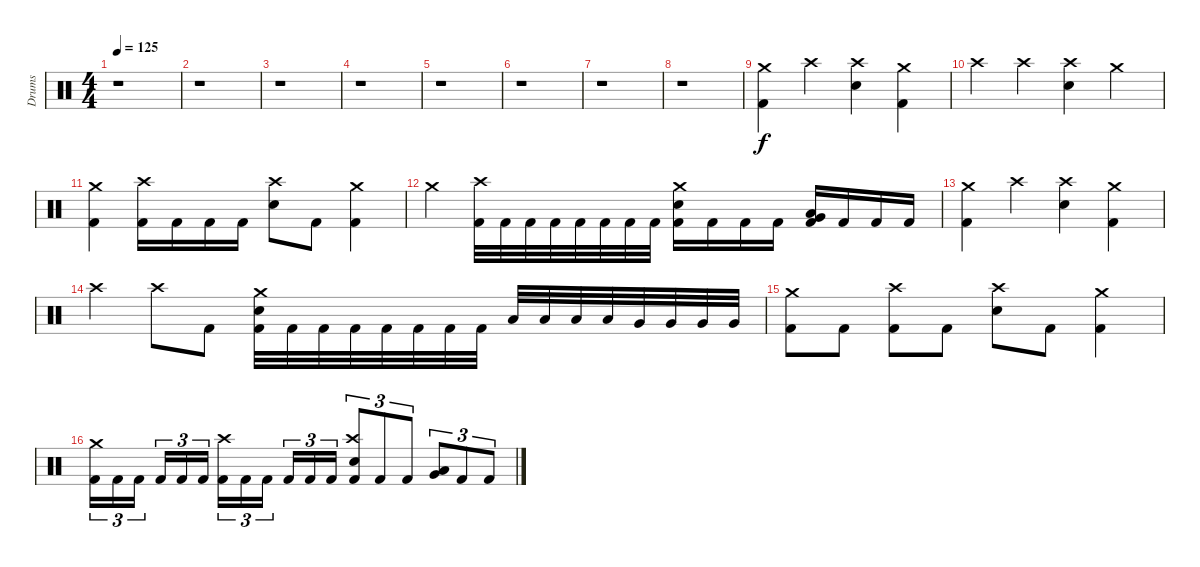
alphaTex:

\track ("Drums" "Drums") {instrument percussion}
\staff {score}
\articulation defaults
\ts (4 4)
\tempo 125
\clef neutral
\ks c
r.1{dy f} |
r.1 |
r.1 |
r.1 |
r.1 |
r.1 |
r.1 |
r.1 |
("Crash medium (hit)" "Kick (hit) 2").4 "Crash high (hit)".4 ("Crash high (hit)" "Snare (hit) 2").4 ("Crash medium (hit)" "Kick (hit) 2").4 |
"Crash high (hit)".4 "Crash high (hit)".4 ("Crash high (hit)" "Snare (hit) 2").4 "Crash medium (hit)".4 |
("Crash medium (hit)" "Kick (hit) 2").4 ("Crash high (hit)" "Kick (hit) 2").16 "Kick (hit) 2".16 "Kick (hit) 2".16 "Kick (hit) 2".16 ("Crash high (hit)" "Snare (hit) 2").8 "Kick (hit) 2".8 ("Crash medium (hit)" "Kick (hit) 2").4 |
"Crash medium (hit)".4 ("Crash high (hit)" "Kick (hit) 2").32 "Kick (hit) 2".32 "Kick (hit) 2".32 "Kick (hit) 2".32 "Kick (hit) 2".32 "Kick (hit) 2".32 "Kick (hit) 2".32 "Kick (hit) 2".32 ("Crash medium (hit)" "Snare (hit) 2" "Kick (hit) 2").16 "Kick (hit) 2".16 "Kick (hit) 2".16 "Kick (hit) 2".16 ("Very Low Tom (hit)" "Low Floor Tom (hit)" "Kick (hit) 2").16 "Kick (hit) 2".16 "Kick (hit) 2".16 "Kick (hit) 2".16 |
("Crash medium (hit)" "Kick (hit) 2").4 "Crash high (hit)".4 ("Crash high (hit)" "Snare (hit) 2").4 ("Crash medium (hit)" "Kick (hit) 2").4 |
"Crash high (hit)".4 "Crash high (hit)".8 "Kick (hit) 2".8 ("Crash medium (hit)" "Snare (hit) 2" "Kick (hit) 2").32 "Kick (hit) 2".32 "Kick (hit) 2".32 "Kick (hit) 2".32 "Kick (hit) 2".32 "Kick (hit) 2".32 "Kick (hit) 2".32 "Kick (hit) 2".32 "Low Tom (hit)".32 "Low Tom (hit)".32 "Low Tom (hit)".32 "Low Tom (hit)".32 "Very Low Tom (hit)".32 "Very Low Tom (hit)".32 "Very Low Tom (hit)".32 "Very Low Tom (hit)".32 |
("Crash medium (hit)" "Kick (hit) 2").8 "Kick (hit) 2".8 ("Crash high (hit)" "Kick (hit) 2").8 "Kick (hit) 2".8 ("Crash high (hit)" "Snare (hit) 2").8 "Kick (hit) 2".8 ("Crash medium (hit)" "Kick (hit) 2").4 |
("Crash medium (hit)" "Kick (hit) 2").16{tu (3 2)} "Kick (hit) 2".16{tu (3 2)} "Kick (hit) 2".16{tu (3 2)} "Kick (hit) 2".16{tu (3 2)} "Kick (hit) 2".16{tu (3 2)} "Kick (hit) 2".16{tu (3 2)} ("Crash high (hit)" "Kick (hit) 2").16{tu (3 2)} "Kick (hit) 2".16{tu (3 2)} "Kick (hit) 2".16{tu (3 2)} "Kick (hit) 2".16{tu (3 2)} "Kick (hit) 2".16{tu (3 2)} "Kick (hit) 2".16{tu (3 2)} ("Crash high (hit)" "Snare (hit) 2" "Kick (hit) 2").8{tu (3 2)} "Kick (hit) 2".8{tu (3 2)} "Kick (hit) 2".8{tu (3 2)} ("Low Floor Tom (hit)" "Very Low Tom (hit)").8{tu (3 2)} "Kick (hit) 2".8{tu (3 2)} "Kick (hit) 2".8{tu (3 2)}
